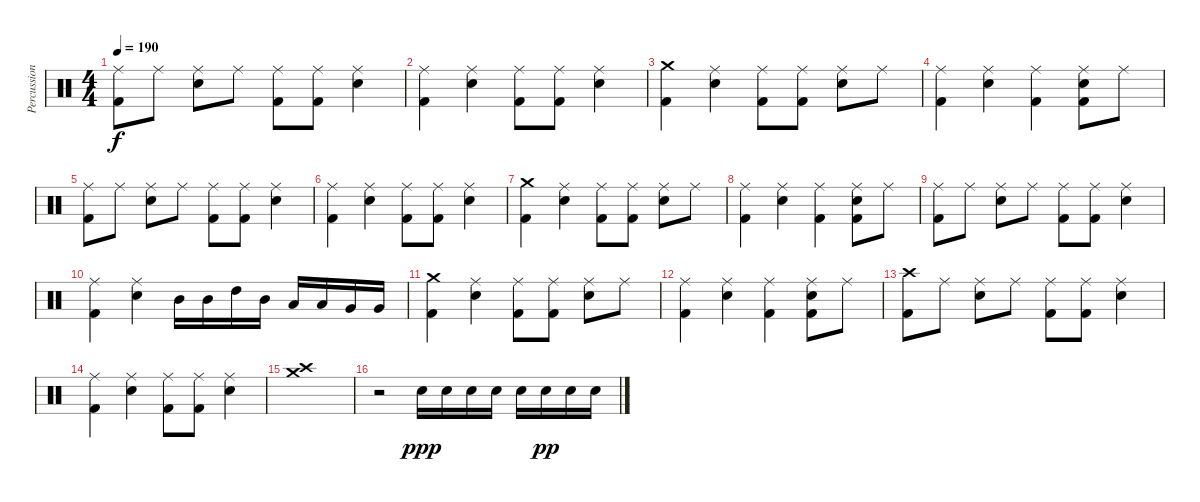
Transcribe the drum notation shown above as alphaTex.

\track ("Percussion" "Percussion") {instrument percussion}
\staff {score}
\articulation defaults
\ts (4 4)
\tempo 190
\clef neutral
\ks c
("Ride (middle)" "Kick (hit) 2").8{dy f} "Ride (middle)".8 ("Ride (middle)" "Electric Snare (hit)").8 "Ride (middle)".8 ("Ride (middle)" "Kick (hit) 2").8 ("Ride (middle)" "Kick (hit) 2").8 ("Ride (middle)" "Electric Snare (hit)").4 |
("Ride (middle)" "Kick (hit) 2").4 ("Ride (middle)" "Electric Snare (hit)").4 ("Ride (middle)" "Kick (hit) 2").8 ("Ride (middle)" "Kick (hit) 2").8 ("Ride (middle)" "Electric Snare (hit)").4 |
("Crash medium (hit)" "Kick (hit) 2").4 ("Ride (middle)" "Electric Snare (hit)").4 ("Ride (middle)" "Kick (hit) 2").8 ("Ride (middle)" "Kick (hit) 2").8 ("Ride (middle)" "Electric Snare (hit)").8 "Ride (middle)".8 |
("Ride (middle)" "Kick (hit) 2").4 ("Ride (middle)" "Electric Snare (hit)").4 ("Ride (middle)" "Kick (hit) 2").4 ("Ride (middle)" "Electric Snare (hit)" "Kick (hit) 2").8 "Ride (middle)".8 |
("Ride (middle)" "Kick (hit) 2").8 "Ride (middle)".8 ("Ride (middle)" "Electric Snare (hit)").8 "Ride (middle)".8 ("Ride (middle)" "Kick (hit) 2").8 ("Ride (middle)" "Kick (hit) 2").8 ("Ride (middle)" "Electric Snare (hit)").4 |
("Ride (middle)" "Kick (hit) 2").4 ("Ride (middle)" "Electric Snare (hit)").4 ("Ride (middle)" "Kick (hit) 2").8 ("Ride (middle)" "Kick (hit) 2").8 ("Ride (middle)" "Electric Snare (hit)").4 |
("Crash medium (hit)" "Kick (hit) 2").4 ("Ride (middle)" "Electric Snare (hit)").4 ("Ride (middle)" "Kick (hit) 2").8 ("Ride (middle)" "Kick (hit) 2").8 ("Ride (middle)" "Electric Snare (hit)").8 "Ride (middle)".8 |
("Ride (middle)" "Kick (hit) 2").4 ("Ride (middle)" "Electric Snare (hit)").4 ("Ride (middle)" "Kick (hit) 2").4 ("Ride (middle)" "Electric Snare (hit)" "Kick (hit) 2").8 "Ride (middle)".8 |
("Ride (middle)" "Kick (hit) 2").8 "Ride (middle)".8 ("Ride (middle)" "Electric Snare (hit)").8 "Ride (middle)".8 ("Ride (middle)" "Kick (hit) 2").8 ("Ride (middle)" "Kick (hit) 2").8 ("Ride (middle)" "Electric Snare (hit)").4 |
("Ride (middle)" "Kick (hit) 2").4 ("Ride (middle)" "Electric Snare (hit)").4 "Mid Tom (hit)".16 "Mid Tom (hit)".16 "High Tom (hit)".16 "Mid Tom (hit)".16 "Low Tom (hit)".16 "Low Tom (hit)".16 "Very Low Tom (hit)".16 "Very Low Tom (hit)".16 |
("Crash medium (hit)" "Kick (hit) 2").4 ("Ride (middle)" "Electric Snare (hit)").4 ("Ride (middle)" "Kick (hit) 2").8 ("Ride (middle)" "Kick (hit) 2").8 ("Ride (middle)" "Electric Snare (hit)").8 "Ride (middle)".8 |
("Ride (middle)" "Kick (hit) 2").4 ("Ride (middle)" "Electric Snare (hit)").4 ("Ride (middle)" "Kick (hit) 2").4 ("Ride (middle)" "Electric Snare (hit)" "Kick (hit) 2").8 "Ride (middle)".8 |
("Crash high (hit)" "Kick (hit) 2").8 "Ride (middle)".8 ("Ride (middle)" "Electric Snare (hit)").8 "Ride (middle)".8 ("Ride (middle)" "Kick (hit) 2").8 ("Ride (middle)" "Kick (hit) 2").8 ("Ride (middle)" "Electric Snare (hit)").4 |
("Ride (middle)" "Kick (hit) 2").4 ("Ride (middle)" "Electric Snare (hit)").4 ("Ride (middle)" "Kick (hit) 2").8 ("Ride (middle)" "Kick (hit) 2").8 ("Ride (middle)" "Electric Snare (hit)").4 |
("Crash high (hit)" "Crash medium (hit)").1 |
r.2 "Electric Snare (hit)".16{dy ppp} "Electric Snare (hit)".16 "Electric Snare (hit)".16 "Electric Snare (hit)".16 "Electric Snare (hit)".16 "Electric Snare (hit)".16{dy pp} "Electric Snare (hit)".16 "Electric Snare (hit)".16
